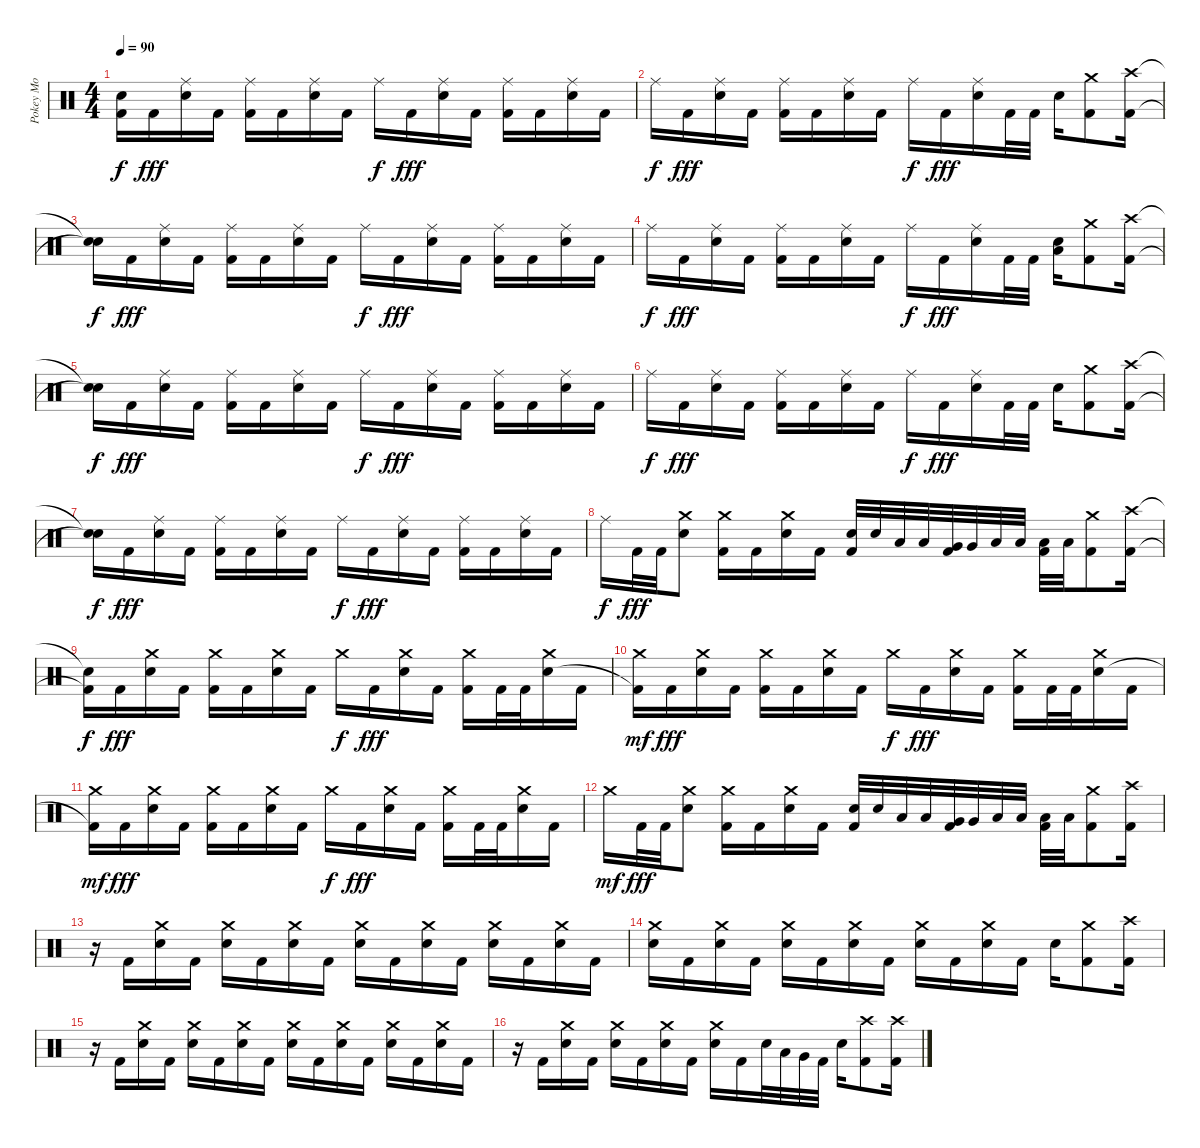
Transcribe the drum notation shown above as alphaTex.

\track ("Pokey Mo" "Pokey Mo") {instrument percussion}
\staff {score}
\articulation defaults
\ts (4 4)
\tempo 90
\clef neutral
\ks c
("Snare (hit)"{t} "Kick (hit) 2"{t}).16{dy f} "Kick (hit) 2".16{dy fff} ("Ride (middle)" "Electric Snare (hit)").16 "Kick (hit) 2".16 ("Ride (middle)" "Kick (hit) 2").16 "Kick (hit) 2".16 ("Ride (middle)" "Electric Snare (hit)").16 "Kick (hit) 2".16 "Ride (middle)".16{dy f} "Kick (hit) 2".16{dy fff} ("Ride (middle)" "Electric Snare (hit)").16 "Kick (hit) 2".16 ("Ride (middle)" "Kick (hit) 2").16 "Kick (hit) 2".16 ("Ride (middle)" "Electric Snare (hit)").16 "Kick (hit) 2".16 |
"Ride (middle)".16{dy f} "Kick (hit) 2".16{dy fff} ("Ride (middle)" "Electric Snare (hit)").16 "Kick (hit) 2".16 ("Ride (middle)" "Kick (hit) 2").16 "Kick (hit) 2".16 ("Ride (middle)" "Electric Snare (hit)").16 "Kick (hit) 2".16 "Ride (middle)".16{dy f} "Kick (hit) 2".16{dy fff} ("Ride (middle)" "Electric Snare (hit)").16 "Kick (hit) 2".32 "Kick (hit) 2".32 "Electric Snare (hit)".16 ("Crash medium (hit)" "Kick (hit) 2").8 ("Crash high (hit)" "Kick (hit) 2").16 |
("Snare (hit)"{t} "Snare (hit)"{t}).16{dy f} "Kick (hit) 2".16{dy fff} ("Ride (middle)" "Electric Snare (hit)").16 "Kick (hit) 2".16 ("Ride (middle)" "Kick (hit) 2").16 "Kick (hit) 2".16 ("Ride (middle)" "Electric Snare (hit)").16 "Kick (hit) 2".16 "Ride (middle)".16{dy f} "Kick (hit) 2".16{dy fff} ("Ride (middle)" "Electric Snare (hit)").16 "Kick (hit) 2".16 ("Ride (middle)" "Kick (hit) 2").16 "Kick (hit) 2".16 ("Ride (middle)" "Electric Snare (hit)").16 "Kick (hit) 2".16 |
"Ride (middle)".16{dy f} "Kick (hit) 2".16{dy fff} ("Ride (middle)" "Electric Snare (hit)").16 "Kick (hit) 2".16 ("Ride (middle)" "Kick (hit) 2").16 "Kick (hit) 2".16 ("Ride (middle)" "Electric Snare (hit)").16 "Kick (hit) 2".16 "Ride (middle)".16{dy f} "Kick (hit) 2".16{dy fff} ("Ride (middle)" "Electric Snare (hit)").16 "Kick (hit) 2".32 "Kick (hit) 2".32 ("Electric Snare (hit)" "Low Floor Tom (hit)").16 ("Crash medium (hit)" "Kick (hit) 2").8 ("Crash high (hit)" "Kick (hit) 2").16 |
("Snare (hit)"{t} "Snare (hit)"{t}).16{dy f} "Kick (hit) 2".16{dy fff} ("Ride (middle)" "Electric Snare (hit)").16 "Kick (hit) 2".16 ("Ride (middle)" "Kick (hit) 2").16 "Kick (hit) 2".16 ("Ride (middle)" "Electric Snare (hit)").16 "Kick (hit) 2".16 "Ride (middle)".16{dy f} "Kick (hit) 2".16{dy fff} ("Ride (middle)" "Electric Snare (hit)").16 "Kick (hit) 2".16 ("Ride (middle)" "Kick (hit) 2").16 "Kick (hit) 2".16 ("Ride (middle)" "Electric Snare (hit)").16 "Kick (hit) 2".16 |
"Ride (middle)".16{dy f} "Kick (hit) 2".16{dy fff} ("Ride (middle)" "Electric Snare (hit)").16 "Kick (hit) 2".16 ("Ride (middle)" "Kick (hit) 2").16 "Kick (hit) 2".16 ("Ride (middle)" "Electric Snare (hit)").16 "Kick (hit) 2".16 "Ride (middle)".16{dy f} "Kick (hit) 2".16{dy fff} ("Ride (middle)" "Electric Snare (hit)").16 "Kick (hit) 2".32 "Kick (hit) 2".32 "Electric Snare (hit)".16 ("Crash medium (hit)" "Kick (hit) 2").8 ("Crash high (hit)" "Kick (hit) 2").16 |
("Snare (hit)"{t} "Snare (hit)"{t}).16{dy f} "Kick (hit) 2".16{dy fff} ("Ride (middle)" "Electric Snare (hit)").16 "Kick (hit) 2".16 ("Ride (middle)" "Kick (hit) 2").16 "Kick (hit) 2".16 ("Ride (middle)" "Electric Snare (hit)").16 "Kick (hit) 2".16 "Ride (middle)".16{dy f} "Kick (hit) 2".16{dy fff} ("Ride (middle)" "Electric Snare (hit)").16 "Kick (hit) 2".16 ("Ride (middle)" "Kick (hit) 2").16 "Kick (hit) 2".16 ("Ride (middle)" "Electric Snare (hit)").16 "Kick (hit) 2".16 |
"Ride (middle)".16{dy f} "Kick (hit) 2".32{dy fff} "Kick (hit) 2".32 ("Crash medium (hit)" "Electric Snare (hit)").8 ("Crash medium (hit)" "Kick (hit) 2").16 "Kick (hit) 2".16 ("Crash medium (hit)" "Electric Snare (hit)").16 "Kick (hit) 2".16 ("Electric Snare (hit)" "Kick (hit) 2").32 "Electric Snare (hit)".32 "Low Tom (hit)".32 "Low Tom (hit)".32 ("Very Low Tom (hit)" "Kick (hit) 2").32 "Very Low Tom (hit)".32 "Low Floor Tom (hit)".32 "Low Floor Tom (hit)".32 ("Low Floor Tom (hit)" "Kick (hit) 2").32 "Low Floor Tom (hit)".32 ("Crash medium (hit)" "Kick (hit) 2").8 ("Crash high (hit)" "Kick (hit) 2").16 |
("Snare (hit)"{t} "Kick (hit) 2"{t}).16{dy f} "Kick (hit) 2".16{dy fff} ("Crash medium (hit)" "Electric Snare (hit)").16 "Kick (hit) 2".16 ("Crash medium (hit)" "Kick (hit) 2").16 "Kick (hit) 2".16 ("Crash medium (hit)" "Electric Snare (hit)").16 "Kick (hit) 2".16 "Crash medium (hit)".16{dy f} "Kick (hit) 2".16{dy fff} ("Crash medium (hit)" "Electric Snare (hit)").16 "Kick (hit) 2".16 ("Crash medium (hit)" "Kick (hit) 2").16 "Kick (hit) 2".32 "Kick (hit) 2".32 ("Crash medium (hit)" "Electric Snare (hit)").16 "Kick (hit) 2".16 |
("Crash medium (hit)" "Kick (hit) 2"{t}).16{dy mf} "Kick (hit) 2".16{dy fff} ("Crash medium (hit)" "Electric Snare (hit)").16 "Kick (hit) 2".16 ("Crash medium (hit)" "Kick (hit) 2").16 "Kick (hit) 2".16 ("Crash medium (hit)" "Electric Snare (hit)").16 "Kick (hit) 2".16 "Crash medium (hit)".16{dy f} "Kick (hit) 2".16{dy fff} ("Crash medium (hit)" "Electric Snare (hit)").16 "Kick (hit) 2".16 ("Crash medium (hit)" "Kick (hit) 2").16 "Kick (hit) 2".32 "Kick (hit) 2".32 ("Crash medium (hit)" "Electric Snare (hit)").16 "Kick (hit) 2".16 |
("Crash medium (hit)" "Kick (hit) 2"{t}).16{dy mf} "Kick (hit) 2".16{dy fff} ("Crash medium (hit)" "Electric Snare (hit)").16 "Kick (hit) 2".16 ("Crash medium (hit)" "Kick (hit) 2").16 "Kick (hit) 2".16 ("Crash medium (hit)" "Electric Snare (hit)").16 "Kick (hit) 2".16 "Crash medium (hit)".16{dy f} "Kick (hit) 2".16{dy fff} ("Crash medium (hit)" "Electric Snare (hit)").16 "Kick (hit) 2".16 ("Crash medium (hit)" "Kick (hit) 2").16 "Kick (hit) 2".32 "Kick (hit) 2".32 ("Crash medium (hit)" "Electric Snare (hit)").16 "Kick (hit) 2".16 |
"Crash medium (hit)".16{dy mf} "Kick (hit) 2".32{dy fff} "Kick (hit) 2".32 ("Crash medium (hit)" "Electric Snare (hit)").8 ("Crash medium (hit)" "Kick (hit) 2").16 "Kick (hit) 2".16 ("Crash medium (hit)" "Electric Snare (hit)").16 "Kick (hit) 2".16 ("Electric Snare (hit)" "Kick (hit) 2").32 "Electric Snare (hit)".32 "Low Tom (hit)".32 "Low Tom (hit)".32 ("Very Low Tom (hit)" "Kick (hit) 2").32 "Very Low Tom (hit)".32 "Low Floor Tom (hit)".32 "Low Floor Tom (hit)".32 ("Low Floor Tom (hit)" "Kick (hit) 2").32 "Low Floor Tom (hit)".32 ("Crash medium (hit)" "Kick (hit) 2").8 ("Crash high (hit)" "Kick (hit) 2").16 |
r.16 "Kick (hit) 2".16 ("Crash medium (hit)" "Electric Snare (hit)").16 "Kick (hit) 2".16 ("Crash medium (hit)" "Electric Snare (hit)").16 "Kick (hit) 2".16 ("Crash medium (hit)" "Electric Snare (hit)").16 "Kick (hit) 2".16 ("Crash medium (hit)" "Electric Snare (hit)").16 "Kick (hit) 2".16 ("Crash medium (hit)" "Electric Snare (hit)").16 "Kick (hit) 2".16 ("Crash medium (hit)" "Electric Snare (hit)").16 "Kick (hit) 2".16 ("Crash medium (hit)" "Electric Snare (hit)").16 "Kick (hit) 2".16 |
("Crash medium (hit)" "Electric Snare (hit)").16 "Kick (hit) 2".16 ("Crash medium (hit)" "Electric Snare (hit)").16 "Kick (hit) 2".16 ("Crash medium (hit)" "Electric Snare (hit)").16 "Kick (hit) 2".16 ("Crash medium (hit)" "Electric Snare (hit)").16 "Kick (hit) 2".16 ("Crash medium (hit)" "Electric Snare (hit)").16 "Kick (hit) 2".16 ("Crash medium (hit)" "Electric Snare (hit)").16 "Kick (hit) 2".16 "Electric Snare (hit)".16 ("Crash medium (hit)" "Kick (hit) 2").8 ("Crash high (hit)" "Kick (hit) 2").16 |
r.16 "Kick (hit) 2".16 ("Crash medium (hit)" "Electric Snare (hit)").16 "Kick (hit) 2".16 ("Crash medium (hit)" "Electric Snare (hit)").16 "Kick (hit) 2".16 ("Crash medium (hit)" "Electric Snare (hit)").16 "Kick (hit) 2".16 ("Crash medium (hit)" "Electric Snare (hit)").16 "Kick (hit) 2".16 ("Crash medium (hit)" "Electric Snare (hit)").16 "Kick (hit) 2".16 ("Crash medium (hit)" "Electric Snare (hit)").16 "Kick (hit) 2".16 ("Crash medium (hit)" "Electric Snare (hit)").16 "Kick (hit) 2".16 |
r.16 "Kick (hit) 2".16 ("Crash medium (hit)" "Electric Snare (hit)").16 "Kick (hit) 2".16 ("Crash medium (hit)" "Electric Snare (hit)").16 "Kick (hit) 2".16 ("Crash medium (hit)" "Electric Snare (hit)").16 "Kick (hit) 2".16 ("Crash medium (hit)" "Electric Snare (hit)").16 "Kick (hit) 2".16 "Electric Snare (hit)".32 "Low Tom (hit)".32 "Very Low Tom (hit)".32 "Kick (hit) 2".32 "Electric Snare (hit)".16 ("Crash high (hit)" "Kick (hit) 2").8 ("Crash high (hit)" "Kick (hit) 2").16
